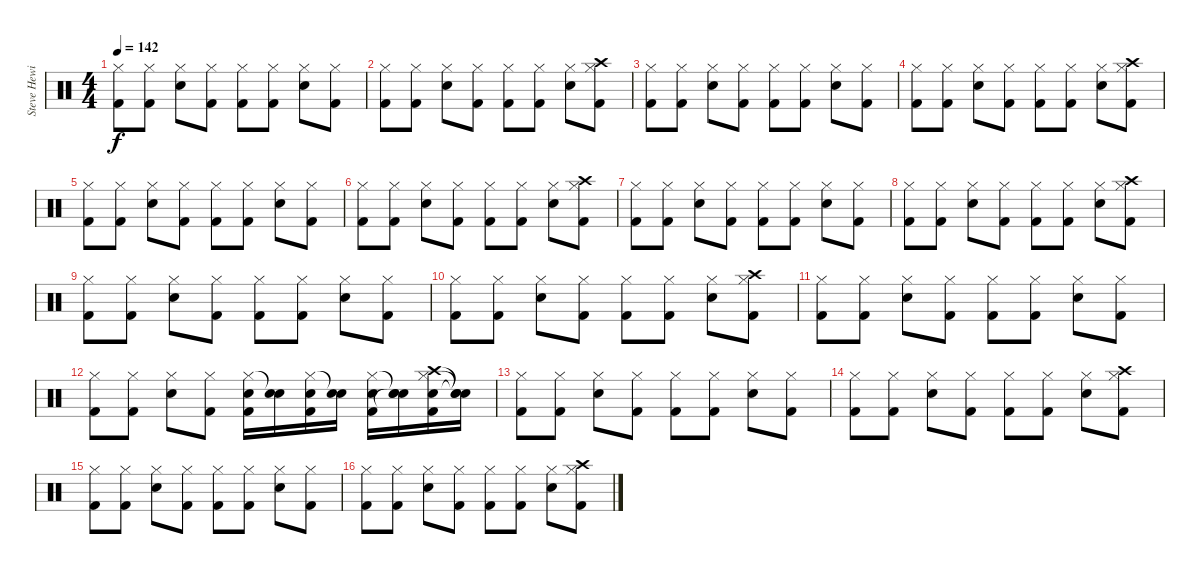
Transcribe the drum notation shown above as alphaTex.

\track ("Steve Hewitt" "Steve Hewi") {instrument percussion}
\staff {score}
\articulation defaults
\ts (4 4)
\tempo 142
\clef neutral
\ks c
("Hi-Hat (closed)" "Kick (hit) 2").8{dy f} ("Hi-Hat (closed)" "Kick (hit) 2").8 ("Hi-Hat (closed)" "Snare (hit) 2").8 ("Hi-Hat (closed)" "Kick (hit) 2").8 ("Hi-Hat (closed)" "Kick (hit) 2").8 ("Hi-Hat (closed)" "Kick (hit) 2").8 ("Hi-Hat (closed)" "Snare (hit) 2").8 ("Hi-Hat (closed)" "Kick (hit) 2").8 |
("Hi-Hat (closed)" "Kick (hit) 2").8 ("Hi-Hat (closed)" "Kick (hit) 2").8 ("Hi-Hat (closed)" "Snare (hit) 2").8 ("Hi-Hat (closed)" "Kick (hit) 2").8 ("Hi-Hat (closed)" "Kick (hit) 2").8 ("Hi-Hat (closed)" "Kick (hit) 2").8 ("Hi-Hat (closed)" "Snare (hit) 2").8 ("Crash high (hit)" "Hi-Hat (closed)" "Kick (hit) 2").8 |
("Hi-Hat (closed)" "Kick (hit) 2").8 ("Hi-Hat (closed)" "Kick (hit) 2").8 ("Hi-Hat (closed)" "Snare (hit) 2").8 ("Hi-Hat (closed)" "Kick (hit) 2").8 ("Hi-Hat (closed)" "Kick (hit) 2").8 ("Hi-Hat (closed)" "Kick (hit) 2").8 ("Hi-Hat (closed)" "Snare (hit) 2").8 ("Hi-Hat (closed)" "Kick (hit) 2").8 |
("Hi-Hat (closed)" "Kick (hit) 2").8 ("Hi-Hat (closed)" "Kick (hit) 2").8 ("Hi-Hat (closed)" "Snare (hit) 2").8 ("Hi-Hat (closed)" "Kick (hit) 2").8 ("Hi-Hat (closed)" "Kick (hit) 2").8 ("Hi-Hat (closed)" "Kick (hit) 2").8 ("Hi-Hat (closed)" "Snare (hit) 2").8 ("Crash high (hit)" "Hi-Hat (closed)" "Kick (hit) 2").8 |
("Hi-Hat (closed)" "Kick (hit) 2").8 ("Hi-Hat (closed)" "Kick (hit) 2").8 ("Hi-Hat (closed)" "Snare (hit) 2").8 ("Hi-Hat (closed)" "Kick (hit) 2").8 ("Hi-Hat (closed)" "Kick (hit) 2").8 ("Hi-Hat (closed)" "Kick (hit) 2").8 ("Hi-Hat (closed)" "Snare (hit) 2").8 ("Hi-Hat (closed)" "Kick (hit) 2").8 |
("Hi-Hat (closed)" "Kick (hit) 2").8 ("Hi-Hat (closed)" "Kick (hit) 2").8 ("Hi-Hat (closed)" "Snare (hit) 2").8 ("Hi-Hat (closed)" "Kick (hit) 2").8 ("Hi-Hat (closed)" "Kick (hit) 2").8 ("Hi-Hat (closed)" "Kick (hit) 2").8 ("Hi-Hat (closed)" "Snare (hit) 2").8 ("Crash high (hit)" "Hi-Hat (closed)" "Kick (hit) 2").8 |
("Hi-Hat (closed)" "Kick (hit) 2").8 ("Hi-Hat (closed)" "Kick (hit) 2").8 ("Hi-Hat (closed)" "Snare (hit) 2").8 ("Hi-Hat (closed)" "Kick (hit) 2").8 ("Hi-Hat (closed)" "Kick (hit) 2").8 ("Hi-Hat (closed)" "Kick (hit) 2").8 ("Hi-Hat (closed)" "Snare (hit) 2").8 ("Hi-Hat (closed)" "Kick (hit) 2").8 |
("Hi-Hat (closed)" "Kick (hit) 2").8 ("Hi-Hat (closed)" "Kick (hit) 2").8 ("Hi-Hat (closed)" "Snare (hit) 2").8 ("Hi-Hat (closed)" "Kick (hit) 2").8 ("Hi-Hat (closed)" "Kick (hit) 2").8 ("Hi-Hat (closed)" "Kick (hit) 2").8 ("Hi-Hat (closed)" "Snare (hit) 2").8 ("Crash high (hit)" "Hi-Hat (closed)" "Kick (hit) 2").8 |
("Hi-Hat (closed)" "Kick (hit) 2").8 ("Hi-Hat (closed)" "Kick (hit) 2").8 ("Hi-Hat (closed)" "Snare (hit) 2").8 ("Hi-Hat (closed)" "Kick (hit) 2").8 ("Hi-Hat (closed)" "Kick (hit) 2").8 ("Hi-Hat (closed)" "Kick (hit) 2").8 ("Hi-Hat (closed)" "Snare (hit) 2").8 ("Hi-Hat (closed)" "Kick (hit) 2").8 |
("Hi-Hat (closed)" "Kick (hit) 2").8 ("Hi-Hat (closed)" "Kick (hit) 2").8 ("Hi-Hat (closed)" "Snare (hit) 2").8 ("Hi-Hat (closed)" "Kick (hit) 2").8 ("Hi-Hat (closed)" "Kick (hit) 2").8 ("Hi-Hat (closed)" "Kick (hit) 2").8 ("Hi-Hat (closed)" "Snare (hit) 2").8 ("Crash high (hit)" "Hi-Hat (closed)" "Kick (hit) 2").8 |
("Hi-Hat (closed)" "Kick (hit) 2").8 ("Hi-Hat (closed)" "Kick (hit) 2").8 ("Hi-Hat (closed)" "Snare (hit) 2").8 ("Hi-Hat (closed)" "Kick (hit) 2").8 ("Hi-Hat (closed)" "Kick (hit) 2").8 ("Hi-Hat (closed)" "Kick (hit) 2").8 ("Hi-Hat (closed)" "Snare (hit) 2").8 ("Hi-Hat (closed)" "Kick (hit) 2").8 |
("Hi-Hat (closed)" "Kick (hit) 2").8 ("Hi-Hat (closed)" "Kick (hit) 2").8 ("Hi-Hat (closed)" "Snare (hit) 2").8 ("Hi-Hat (closed)" "Kick (hit) 2").8 ("Snare (hit) 2" "Hi-Hat (closed)" "Kick (hit) 2").16 ("Snare (hit) 2" "Snare (hit)"{t}).16 ("Snare (hit) 2" "Hi-Hat (closed)" "Kick (hit) 2").16 ("Snare (hit) 2" "Snare (hit)"{t}).16 ("Snare (hit) 2" "Hi-Hat (closed)" "Kick (hit) 2").16 ("Snare (hit) 2" "Snare (hit)"{t} "Snare (hit)"{t}).16 ("Snare (hit) 2" "Crash high (hit)" "Hi-Hat (closed)" "Kick (hit) 2").16 ("Snare (hit)"{t} "Snare (hit)"{t} "Snare (hit)"{t}).16 |
("Hi-Hat (closed)" "Kick (hit) 2").8 ("Hi-Hat (closed)" "Kick (hit) 2").8 ("Hi-Hat (closed)" "Snare (hit) 2").8 ("Hi-Hat (closed)" "Kick (hit) 2").8 ("Hi-Hat (closed)" "Kick (hit) 2").8 ("Hi-Hat (closed)" "Kick (hit) 2").8 ("Hi-Hat (closed)" "Snare (hit) 2").8 ("Hi-Hat (closed)" "Kick (hit) 2").8 |
("Hi-Hat (closed)" "Kick (hit) 2").8 ("Hi-Hat (closed)" "Kick (hit) 2").8 ("Hi-Hat (closed)" "Snare (hit) 2").8 ("Hi-Hat (closed)" "Kick (hit) 2").8 ("Hi-Hat (closed)" "Kick (hit) 2").8 ("Hi-Hat (closed)" "Kick (hit) 2").8 ("Hi-Hat (closed)" "Snare (hit) 2").8 ("Crash high (hit)" "Hi-Hat (closed)" "Kick (hit) 2").8 |
("Hi-Hat (closed)" "Kick (hit) 2").8 ("Hi-Hat (closed)" "Kick (hit) 2").8 ("Hi-Hat (closed)" "Snare (hit) 2").8 ("Hi-Hat (closed)" "Kick (hit) 2").8 ("Hi-Hat (closed)" "Kick (hit) 2").8 ("Hi-Hat (closed)" "Kick (hit) 2").8 ("Hi-Hat (closed)" "Snare (hit) 2").8 ("Hi-Hat (closed)" "Kick (hit) 2").8 |
("Hi-Hat (closed)" "Kick (hit) 2").8 ("Hi-Hat (closed)" "Kick (hit) 2").8 ("Hi-Hat (closed)" "Snare (hit) 2").8 ("Hi-Hat (closed)" "Kick (hit) 2").8 ("Hi-Hat (closed)" "Kick (hit) 2").8 ("Hi-Hat (closed)" "Kick (hit) 2").8 ("Hi-Hat (closed)" "Snare (hit) 2").8 ("Crash high (hit)" "Hi-Hat (closed)" "Kick (hit) 2").8
